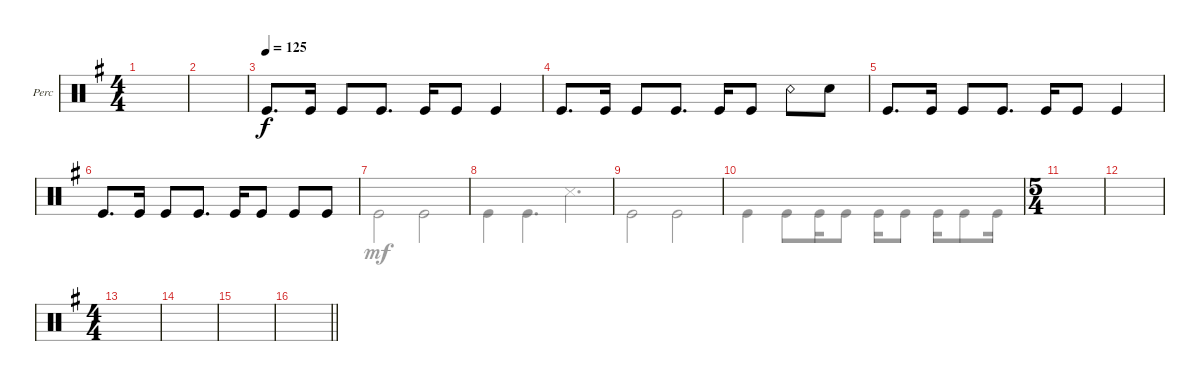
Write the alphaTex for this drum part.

\defaultSystemsLayout 4
\bracketExtendMode groupsimilarinstruments
\firstSystemTrackNameOrientation horizontal
\otherSystemsTrackNameOrientation horizontal
\track ("Percussion" "Perc") {instrument percussion}
\staff {score}
\articulation defaults
\voice
\ts (4 4)
\scale
0.569243
\tempo (110 hide)
\accidentals auto
\clef neutral
\ottava regular
\simile none
\ks eminor
|
\scale
0.431048 |
\scale
0.350034
\tempo (125)
"Kick (hit)".8{d} "Kick (hit)".16 "Kick (hit)".8 "Kick (hit)".8{d} "Kick (hit)".16 "Kick (hit)".8 "Kick (hit)".4 |
\scale
0.330981 "Kick (hit)".8{d} "Kick (hit)".16 "Kick (hit)".8 "Kick (hit)".8{d} "Kick (hit)".16 "Kick (hit)".8 "Snare (rim shot)".8 "Snare (hit) 2".8 |
\scale
0.399688 "Kick (hit)".8{d} "Kick (hit)".16 "Kick (hit)".8 "Kick (hit)".8{d} "Kick (hit)".16 "Kick (hit)".8 "Kick (hit)".4 |
\scale
0.432065 "Kick (hit)".8{d} "Kick (hit)".16 "Kick (hit)".8 "Kick (hit)".8{d} "Kick (hit)".16 "Kick (hit)".8 "Kick (hit)".8 "Kick (hit)".8 |
|
|
|
|
\ts (5 4)
\scale
0.807022
\scale
0.333333 |
\scale
0.379017
\scale
0.333333 |
\ts (4 4)
\scale
0.621379
\scale
0.333333 |
\scale
0.375997
\scale
0.333333 |
\scale
0.143586
\scale
0.333333 |
\scale
0.0947209
\scale
0.333333
\barLineRight lightlight
\voice
\clef neutral
\ottava regular
\simile none
\ks eminor
|
|
|
|
|
|
"Kick (hit)".2{dy mf} "Kick (hit)".2 |
"Kick (hit)".4 "Kick (hit)".4{d} "Snare (side stick) 3".4{d} |
"Kick (hit)".2 "Kick (hit)".2 |
"Kick (hit)".4 "Kick (hit)".8 "Kick (hit)".16 "Kick (hit)".8 "Kick (hit)".16 "Kick (hit)".8 "Kick (hit)".16 "Kick (hit)".8 "Kick (hit)".16 |
\scale
0.333333 |
\scale
0.333333 |
\scale
0.333333 |
\scale
0.333333 |
\scale
0.333333 |
\scale
0.333333
\barLineRight lightlight
